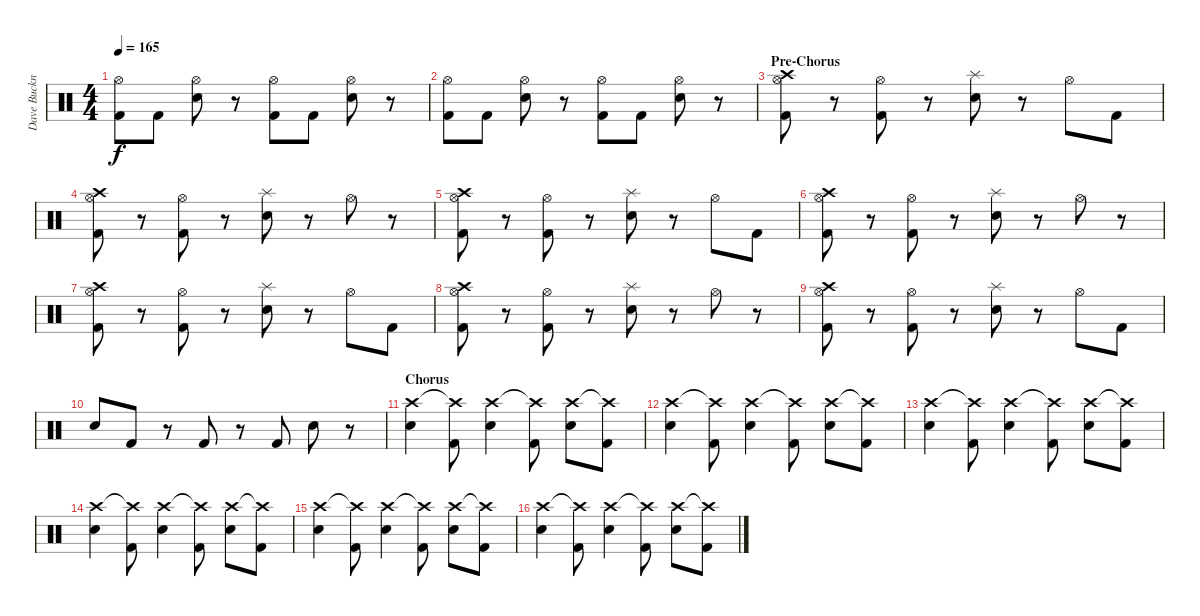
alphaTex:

\track ("Dave Buckner " "Dave Buckn") {instrument percussion}
\staff {score}
\articulation defaults
\ts (4 4)
\tempo 165
\clef neutral
\ks c
("Hi-Hat (open)" "Kick (hit) 2").8{dy f} "Kick (hit) 2".8 ("Hi-Hat (open)" "Snare (hit) 2").8 r.8 ("Hi-Hat (open)" "Kick (hit) 2").8 "Kick (hit) 2".8 ("Hi-Hat (open)" "Snare (hit) 2").8 r.8 |
("Hi-Hat (open)" "Kick (hit) 2").8 "Kick (hit) 2".8 ("Hi-Hat (open)" "Snare (hit) 2").8 r.8 ("Hi-Hat (open)" "Kick (hit) 2").8 "Kick (hit) 2".8 ("Hi-Hat (open)" "Snare (hit) 2").8 r.8 |
\section ("" "Pre-Chorus")
("Crash high (hit)" "Hi-Hat (open)" "Kick (hit) 2").8 r.8 ("Hi-Hat (open)" "Kick (hit) 2").8 r.8 ("Splash (hit)" "Snare (hit) 2").8 r.8 "Hi-Hat (open)".8 "Kick (hit) 2".8 |
("Crash high (hit)" "Hi-Hat (open)" "Kick (hit) 2").8 r.8 ("Hi-Hat (open)" "Kick (hit) 2").8 r.8 ("Splash (hit)" "Snare (hit) 2").8 r.8 "Hi-Hat (open)".8 r.8 |
("Crash high (hit)" "Hi-Hat (open)" "Kick (hit) 2").8 r.8 ("Hi-Hat (open)" "Kick (hit) 2").8 r.8 ("Splash (hit)" "Snare (hit) 2").8 r.8 "Hi-Hat (open)".8 "Kick (hit) 2".8 |
("Crash high (hit)" "Hi-Hat (open)" "Kick (hit) 2").8 r.8 ("Hi-Hat (open)" "Kick (hit) 2").8 r.8 ("Splash (hit)" "Snare (hit) 2").8 r.8 "Hi-Hat (open)".8 r.8 |
("Crash high (hit)" "Hi-Hat (open)" "Kick (hit) 2").8 r.8 ("Hi-Hat (open)" "Kick (hit) 2").8 r.8 ("Splash (hit)" "Snare (hit) 2").8 r.8 "Hi-Hat (open)".8 "Kick (hit) 2".8 |
("Crash high (hit)" "Hi-Hat (open)" "Kick (hit) 2").8 r.8 ("Hi-Hat (open)" "Kick (hit) 2").8 r.8 ("Splash (hit)" "Snare (hit) 2").8 r.8 "Hi-Hat (open)".8 r.8 |
("Crash high (hit)" "Hi-Hat (open)" "Kick (hit) 2").8 r.8 ("Hi-Hat (open)" "Kick (hit) 2").8 r.8 ("Splash (hit)" "Snare (hit) 2").8 r.8 "Hi-Hat (open)".8 "Kick (hit) 2".8 |
"Snare (hit) 2".8 "Kick (hit) 2".8 r.8 "Kick (hit) 2".8 r.8 "Kick (hit) 2".8 "Snare (hit) 2".8 r.8 |
\section ("" "Chorus")
("Crash high (hit)" "Snare (hit) 2").4 ("Crash high (hit)"{t} "Kick (hit) 2").8 ("Crash high (hit)" "Snare (hit) 2").4 ("Crash high (hit)"{t} "Kick (hit) 2").8 ("Crash high (hit)" "Snare (hit) 2").8 ("Crash high (hit)"{t} "Kick (hit) 2").8 |
("Crash high (hit)" "Snare (hit) 2").4 ("Crash high (hit)"{t} "Kick (hit) 2").8 ("Crash high (hit)" "Snare (hit) 2").4 ("Crash high (hit)"{t} "Kick (hit) 2").8 ("Crash high (hit)" "Snare (hit) 2").8 ("Crash high (hit)"{t} "Kick (hit) 2").8 |
("Crash high (hit)" "Snare (hit) 2").4 ("Crash high (hit)"{t} "Kick (hit) 2").8 ("Crash high (hit)" "Snare (hit) 2").4 ("Crash high (hit)"{t} "Kick (hit) 2").8 ("Crash high (hit)" "Snare (hit) 2").8 ("Crash high (hit)"{t} "Kick (hit) 2").8 |
("Crash high (hit)" "Snare (hit) 2").4 ("Crash high (hit)"{t} "Kick (hit) 2").8 ("Crash high (hit)" "Snare (hit) 2").4 ("Crash high (hit)"{t} "Kick (hit) 2").8 ("Crash high (hit)" "Snare (hit) 2").8 ("Crash high (hit)"{t} "Kick (hit) 2").8 |
("Crash high (hit)" "Snare (hit) 2").4 ("Crash high (hit)"{t} "Kick (hit) 2").8 ("Crash high (hit)" "Snare (hit) 2").4 ("Crash high (hit)"{t} "Kick (hit) 2").8 ("Crash high (hit)" "Snare (hit) 2").8 ("Crash high (hit)"{t} "Kick (hit) 2").8 |
("Crash high (hit)" "Snare (hit) 2").4 ("Crash high (hit)"{t} "Kick (hit) 2").8 ("Crash high (hit)" "Snare (hit) 2").4 ("Crash high (hit)"{t} "Kick (hit) 2").8 ("Crash high (hit)" "Snare (hit) 2").8 ("Crash high (hit)"{t} "Kick (hit) 2").8
